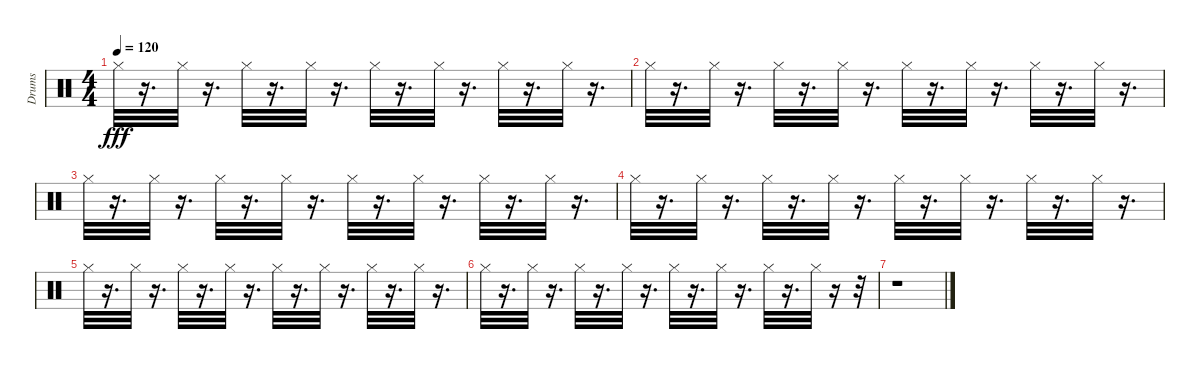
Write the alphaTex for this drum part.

\track ("Drums" "Drums") {instrument percussion}
\staff {score}
\articulation defaults
\ts (4 4)
\tempo 120
\clef neutral
\ks c "Hi-Hat (closed)".32{dy fff}
r.16{d} "Hi-Hat (closed)".32 r.16{d} "Hi-Hat (closed)".32 r.16{d} "Hi-Hat (closed)".32 r.16{d} "Hi-Hat (closed)".32 r.16{d} "Hi-Hat (closed)".32 r.16{d} "Hi-Hat (closed)".32 r.16{d} "Hi-Hat (closed)".32 r.16{d} |
"Hi-Hat (closed)".32 r.16{d} "Hi-Hat (closed)".32 r.16{d} "Hi-Hat (closed)".32 r.16{d} "Hi-Hat (closed)".32 r.16{d} "Hi-Hat (closed)".32 r.16{d} "Hi-Hat (closed)".32 r.16{d} "Hi-Hat (closed)".32 r.16{d} "Hi-Hat (closed)".32 r.16{d} |
"Hi-Hat (closed)".32 r.16{d} "Hi-Hat (closed)".32 r.16{d} "Hi-Hat (closed)".32 r.16{d} "Hi-Hat (closed)".32 r.16{d} "Hi-Hat (closed)".32 r.16{d} "Hi-Hat (closed)".32 r.16{d} "Hi-Hat (closed)".32 r.16{d} "Hi-Hat (closed)".32 r.16{d} |
"Hi-Hat (closed)".32 r.16{d} "Hi-Hat (closed)".32 r.16{d} "Hi-Hat (closed)".32 r.16{d} "Hi-Hat (closed)".32 r.16{d} "Hi-Hat (closed)".32 r.16{d} "Hi-Hat (closed)".32 r.16{d} "Hi-Hat (closed)".32 r.16{d} "Hi-Hat (closed)".32 r.16{d} |
"Hi-Hat (closed)".32 r.16{d} "Hi-Hat (closed)".32 r.16{d} "Hi-Hat (closed)".32 r.16{d} "Hi-Hat (closed)".32 r.16{d} "Hi-Hat (closed)".32 r.16{d} "Hi-Hat (closed)".32 r.16{d} "Hi-Hat (closed)".32 r.16{d} "Hi-Hat (closed)".32 r.16{d} |
"Hi-Hat (closed)".32 r.16{d} "Hi-Hat (closed)".32 r.16{d} "Hi-Hat (closed)".32 r.16{d} "Hi-Hat (closed)".32 r.16{d} "Hi-Hat (closed)".32 r.16{d} "Hi-Hat (closed)".32 r.16{d} "Hi-Hat (closed)".32 r.16{d} "Hi-Hat (closed)".32 r.16 r.32 |
r.1
